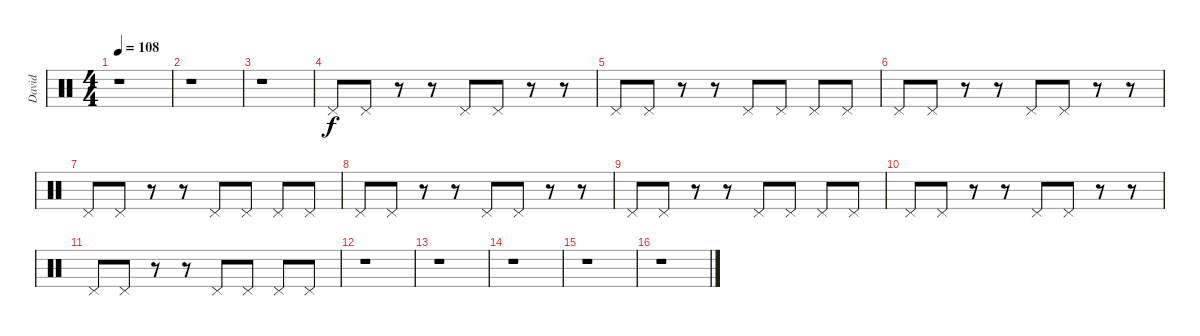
\track ("David" "David") {instrument percussion}
\staff {score}
\articulation defaults
\ts (4 4)
\tempo 108
\clef neutral
\ks c
r.1{dy mf} |
r.1 |
r.1 |
"Pedal Hi-Hat (hit)".8{dy f} "Pedal Hi-Hat (hit)".8 r.8 r.8 "Pedal Hi-Hat (hit)".8 "Pedal Hi-Hat (hit)".8 r.8 r.8 |
"Pedal Hi-Hat (hit)".8 "Pedal Hi-Hat (hit)".8 r.8 r.8 "Pedal Hi-Hat (hit)".8 "Pedal Hi-Hat (hit)".8 "Pedal Hi-Hat (hit)".8 "Pedal Hi-Hat (hit)".8 |
"Pedal Hi-Hat (hit)".8 "Pedal Hi-Hat (hit)".8 r.8 r.8 "Pedal Hi-Hat (hit)".8 "Pedal Hi-Hat (hit)".8 r.8 r.8 |
"Pedal Hi-Hat (hit)".8 "Pedal Hi-Hat (hit)".8 r.8 r.8 "Pedal Hi-Hat (hit)".8 "Pedal Hi-Hat (hit)".8 "Pedal Hi-Hat (hit)".8 "Pedal Hi-Hat (hit)".8 |
"Pedal Hi-Hat (hit)".8 "Pedal Hi-Hat (hit)".8 r.8 r.8 "Pedal Hi-Hat (hit)".8 "Pedal Hi-Hat (hit)".8 r.8 r.8 |
"Pedal Hi-Hat (hit)".8 "Pedal Hi-Hat (hit)".8 r.8 r.8 "Pedal Hi-Hat (hit)".8 "Pedal Hi-Hat (hit)".8 "Pedal Hi-Hat (hit)".8 "Pedal Hi-Hat (hit)".8 |
"Pedal Hi-Hat (hit)".8 "Pedal Hi-Hat (hit)".8 r.8 r.8 "Pedal Hi-Hat (hit)".8 "Pedal Hi-Hat (hit)".8 r.8 r.8 |
"Pedal Hi-Hat (hit)".8 "Pedal Hi-Hat (hit)".8 r.8 r.8 "Pedal Hi-Hat (hit)".8 "Pedal Hi-Hat (hit)".8 "Pedal Hi-Hat (hit)".8 "Pedal Hi-Hat (hit)".8 |
r.1 |
r.1 |
r.1 |
r.1 |
r.1
